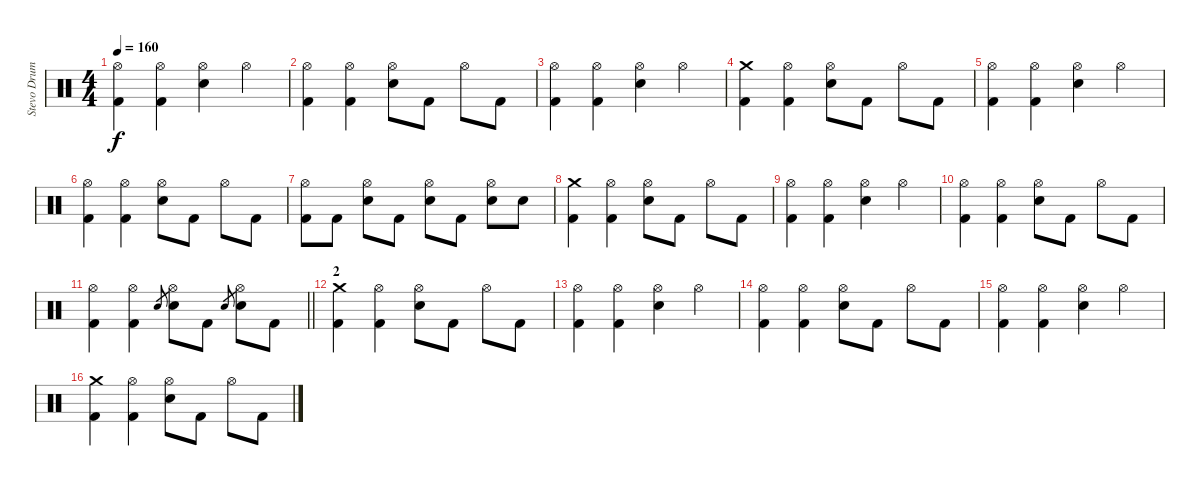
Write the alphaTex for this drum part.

\track ("Stevo Drums" "Stevo Drum") {instrument percussion}
\staff {score}
\articulation defaults
\ts (4 4)
\tempo 160
\clef neutral
\ks c
("Hi-Hat (open)" "Kick (hit) 2").4{dy f} ("Hi-Hat (open)" "Kick (hit) 2").4 ("Electric Snare (hit)" "Hi-Hat (open)").4 "Hi-Hat (open)".4 |
("Hi-Hat (open)" "Kick (hit) 2").4 ("Hi-Hat (open)" "Kick (hit) 2").4 ("Electric Snare (hit)" "Hi-Hat (open)").8 "Kick (hit) 2".8 "Hi-Hat (open)".8 "Kick (hit) 2".8 |
("Hi-Hat (open)" "Kick (hit) 2").4 ("Hi-Hat (open)" "Kick (hit) 2").4 ("Electric Snare (hit)" "Hi-Hat (open)").4 "Hi-Hat (open)".4 |
("Crash medium (hit)" "Kick (hit) 2").4 ("Hi-Hat (open)" "Kick (hit) 2").4 ("Electric Snare (hit)" "Hi-Hat (open)").8 "Kick (hit) 2".8 "Hi-Hat (open)".8 "Kick (hit) 2".8 |
("Hi-Hat (open)" "Kick (hit) 2").4 ("Hi-Hat (open)" "Kick (hit) 2").4 ("Electric Snare (hit)" "Hi-Hat (open)").4 "Hi-Hat (open)".4 |
("Hi-Hat (open)" "Kick (hit) 2").4 ("Hi-Hat (open)" "Kick (hit) 2").4 ("Electric Snare (hit)" "Hi-Hat (open)").8 "Kick (hit) 2".8 "Hi-Hat (open)".8 "Kick (hit) 2".8 |
("Hi-Hat (open)" "Kick (hit) 2").8 "Kick (hit) 2".8 ("Hi-Hat (open)" "Electric Snare (hit)").8 "Kick (hit) 2".8 ("Hi-Hat (open)" "Electric Snare (hit)").8 "Kick (hit) 2".8 ("Hi-Hat (open)" "Electric Snare (hit)").8 "Electric Snare (hit)".8 |
("Crash medium (hit)" "Kick (hit) 2").4 ("Hi-Hat (open)" "Kick (hit) 2").4 ("Electric Snare (hit)" "Hi-Hat (open)").8 "Kick (hit) 2".8 "Hi-Hat (open)".8 "Kick (hit) 2".8 |
("Hi-Hat (open)" "Kick (hit) 2").4 ("Hi-Hat (open)" "Kick (hit) 2").4 ("Electric Snare (hit)" "Hi-Hat (open)").4 "Hi-Hat (open)".4 |
("Hi-Hat (open)" "Kick (hit) 2").4 ("Hi-Hat (open)" "Kick (hit) 2").4 ("Electric Snare (hit)" "Hi-Hat (open)").8 "Kick (hit) 2".8 "Hi-Hat (open)".8 "Kick (hit) 2".8 |
\barLineRight lightlight
("Hi-Hat (open)" "Kick (hit) 2").4 ("Hi-Hat (open)" "Kick (hit) 2").4 "Electric Snare (hit)".8{gr} ("Electric Snare (hit)" "Hi-Hat (open)").8 "Kick (hit) 2".8 "Electric Snare (hit)".8{gr} ("Hi-Hat (open)" "Electric Snare (hit)").8 "Kick (hit) 2".8 |
\section ("" "2")
("Crash medium (hit)" "Kick (hit) 2").4 ("Hi-Hat (open)" "Kick (hit) 2").4 ("Electric Snare (hit)" "Hi-Hat (open)").8 "Kick (hit) 2".8 "Hi-Hat (open)".8 "Kick (hit) 2".8 |
("Hi-Hat (open)" "Kick (hit) 2").4 ("Hi-Hat (open)" "Kick (hit) 2").4 ("Electric Snare (hit)" "Hi-Hat (open)").4 "Hi-Hat (open)".4 |
("Hi-Hat (open)" "Kick (hit) 2").4 ("Hi-Hat (open)" "Kick (hit) 2").4 ("Electric Snare (hit)" "Hi-Hat (open)").8 "Kick (hit) 2".8 "Hi-Hat (open)".8 "Kick (hit) 2".8 |
("Hi-Hat (open)" "Kick (hit) 2").4 ("Hi-Hat (open)" "Kick (hit) 2").4 ("Electric Snare (hit)" "Hi-Hat (open)").4 "Hi-Hat (open)".4 |
("Crash medium (hit)" "Kick (hit) 2").4 ("Hi-Hat (open)" "Kick (hit) 2").4 ("Electric Snare (hit)" "Hi-Hat (open)").8 "Kick (hit) 2".8 "Hi-Hat (open)".8 "Kick (hit) 2".8
